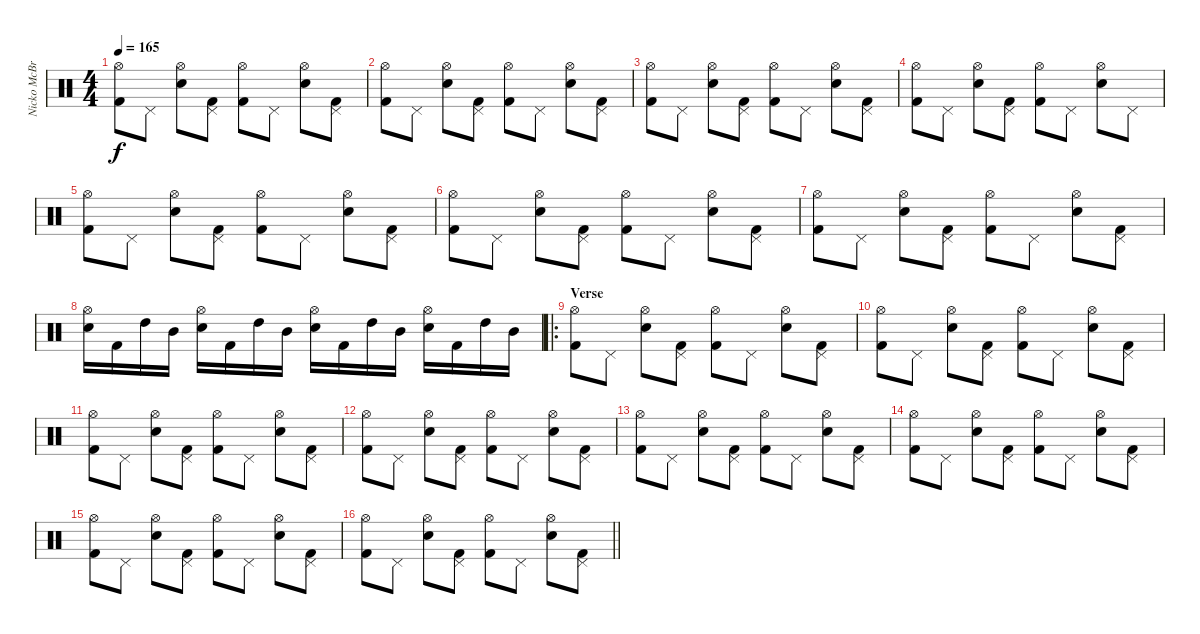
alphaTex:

\track ("Nicko McBrain" "Nicko McBr") {instrument percussion}
\staff {score}
\articulation defaults
\ts (4 4)
\tempo 165
\clef neutral
\ks c
("Kick (hit) 2" "Hi-Hat (open)").8{dy f} "Pedal Hi-Hat (hit)".8 ("Snare (hit) 2" "Hi-Hat (open)").8 ("Kick (hit) 2" "Pedal Hi-Hat (hit)").8 ("Kick (hit) 2" "Hi-Hat (open)").8 "Pedal Hi-Hat (hit)".8 ("Snare (hit) 2" "Hi-Hat (open)").8 ("Kick (hit) 2" "Pedal Hi-Hat (hit)").8 |
("Kick (hit) 2" "Hi-Hat (open)").8 "Pedal Hi-Hat (hit)".8 ("Snare (hit) 2" "Hi-Hat (open)").8 ("Kick (hit) 2" "Pedal Hi-Hat (hit)").8 ("Kick (hit) 2" "Hi-Hat (open)").8 "Pedal Hi-Hat (hit)".8 ("Snare (hit) 2" "Hi-Hat (open)").8 ("Kick (hit) 2" "Pedal Hi-Hat (hit)").8 |
("Kick (hit) 2" "Hi-Hat (open)").8 "Pedal Hi-Hat (hit)".8 ("Snare (hit) 2" "Hi-Hat (open)").8 ("Kick (hit) 2" "Pedal Hi-Hat (hit)").8 ("Kick (hit) 2" "Hi-Hat (open)").8 "Pedal Hi-Hat (hit)".8 ("Snare (hit) 2" "Hi-Hat (open)").8 ("Kick (hit) 2" "Pedal Hi-Hat (hit)").8 |
("Kick (hit) 2" "Hi-Hat (open)").8 "Pedal Hi-Hat (hit)".8 ("Snare (hit) 2" "Hi-Hat (open)").8 ("Kick (hit) 2" "Pedal Hi-Hat (hit)").8 ("Kick (hit) 2" "Hi-Hat (open)").8 "Pedal Hi-Hat (hit)".8 ("Snare (hit) 2" "Hi-Hat (open)").8 "Pedal Hi-Hat (hit)".8 |
("Kick (hit) 2" "Hi-Hat (open)").8 "Pedal Hi-Hat (hit)".8 ("Snare (hit) 2" "Hi-Hat (open)").8 ("Kick (hit) 2" "Pedal Hi-Hat (hit)").8 ("Kick (hit) 2" "Hi-Hat (open)").8 "Pedal Hi-Hat (hit)".8 ("Snare (hit) 2" "Hi-Hat (open)").8 ("Kick (hit) 2" "Pedal Hi-Hat (hit)").8 |
("Kick (hit) 2" "Hi-Hat (open)").8 "Pedal Hi-Hat (hit)".8 ("Snare (hit) 2" "Hi-Hat (open)").8 ("Kick (hit) 2" "Pedal Hi-Hat (hit)").8 ("Kick (hit) 2" "Hi-Hat (open)").8 "Pedal Hi-Hat (hit)".8 ("Snare (hit) 2" "Hi-Hat (open)").8 ("Kick (hit) 2" "Pedal Hi-Hat (hit)").8 |
("Kick (hit) 2" "Hi-Hat (open)").8 "Pedal Hi-Hat (hit)".8 ("Snare (hit) 2" "Hi-Hat (open)").8 ("Kick (hit) 2" "Pedal Hi-Hat (hit)").8 ("Kick (hit) 2" "Hi-Hat (open)").8 "Pedal Hi-Hat (hit)".8 ("Snare (hit) 2" "Hi-Hat (open)").8 ("Kick (hit) 2" "Pedal Hi-Hat (hit)").8 |
("Snare (hit) 2" "Hi-Hat (open)").16 "Kick (hit) 2".16 "High Tom (hit)".16 "Mid Tom (hit)".16 ("Snare (hit) 2" "Hi-Hat (open)").16 "Kick (hit) 2".16 "High Tom (hit)".16 "Mid Tom (hit)".16 ("Snare (hit) 2" "Hi-Hat (open)").16 "Kick (hit) 2".16 "High Tom (hit)".16 "Mid Tom (hit)".16 ("Snare (hit) 2" "Hi-Hat (open)").16 "Kick (hit) 2".16 "High Tom (hit)".16 "Mid Tom (hit)".16 |
\ro
\section ("" "Verse")
("Kick (hit) 2" "Hi-Hat (open)").8 "Pedal Hi-Hat (hit)".8 ("Snare (hit) 2" "Hi-Hat (open)").8 ("Kick (hit) 2" "Pedal Hi-Hat (hit)").8 ("Kick (hit) 2" "Hi-Hat (open)").8 "Pedal Hi-Hat (hit)".8 ("Snare (hit) 2" "Hi-Hat (open)").8 ("Kick (hit) 2" "Pedal Hi-Hat (hit)").8 |
("Kick (hit) 2" "Hi-Hat (open)").8 "Pedal Hi-Hat (hit)".8 ("Snare (hit) 2" "Hi-Hat (open)").8 ("Kick (hit) 2" "Pedal Hi-Hat (hit)").8 ("Kick (hit) 2" "Hi-Hat (open)").8 "Pedal Hi-Hat (hit)".8 ("Snare (hit) 2" "Hi-Hat (open)").8 ("Kick (hit) 2" "Pedal Hi-Hat (hit)").8 |
("Kick (hit) 2" "Hi-Hat (open)").8 "Pedal Hi-Hat (hit)".8 ("Snare (hit) 2" "Hi-Hat (open)").8 ("Kick (hit) 2" "Pedal Hi-Hat (hit)").8 ("Kick (hit) 2" "Hi-Hat (open)").8 "Pedal Hi-Hat (hit)".8 ("Snare (hit) 2" "Hi-Hat (open)").8 ("Kick (hit) 2" "Pedal Hi-Hat (hit)").8 |
("Kick (hit) 2" "Hi-Hat (open)").8 "Pedal Hi-Hat (hit)".8 ("Snare (hit) 2" "Hi-Hat (open)").8 ("Kick (hit) 2" "Pedal Hi-Hat (hit)").8 ("Kick (hit) 2" "Hi-Hat (open)").8 "Pedal Hi-Hat (hit)".8 ("Snare (hit) 2" "Hi-Hat (open)").8 ("Kick (hit) 2" "Pedal Hi-Hat (hit)").8 |
("Kick (hit) 2" "Hi-Hat (open)").8 "Pedal Hi-Hat (hit)".8 ("Snare (hit) 2" "Hi-Hat (open)").8 ("Kick (hit) 2" "Pedal Hi-Hat (hit)").8 ("Kick (hit) 2" "Hi-Hat (open)").8 "Pedal Hi-Hat (hit)".8 ("Snare (hit) 2" "Hi-Hat (open)").8 ("Kick (hit) 2" "Pedal Hi-Hat (hit)").8 |
("Kick (hit) 2" "Hi-Hat (open)").8 "Pedal Hi-Hat (hit)".8 ("Snare (hit) 2" "Hi-Hat (open)").8 ("Kick (hit) 2" "Pedal Hi-Hat (hit)").8 ("Kick (hit) 2" "Hi-Hat (open)").8 "Pedal Hi-Hat (hit)".8 ("Snare (hit) 2" "Hi-Hat (open)").8 ("Kick (hit) 2" "Pedal Hi-Hat (hit)").8 |
("Kick (hit) 2" "Hi-Hat (open)").8 "Pedal Hi-Hat (hit)".8 ("Snare (hit) 2" "Hi-Hat (open)").8 ("Kick (hit) 2" "Pedal Hi-Hat (hit)").8 ("Kick (hit) 2" "Hi-Hat (open)").8 "Pedal Hi-Hat (hit)".8 ("Snare (hit) 2" "Hi-Hat (open)").8 ("Kick (hit) 2" "Pedal Hi-Hat (hit)").8 |
\barLineRight lightlight
("Kick (hit) 2" "Hi-Hat (open)").8 "Pedal Hi-Hat (hit)".8 ("Snare (hit) 2" "Hi-Hat (open)").8 ("Kick (hit) 2" "Pedal Hi-Hat (hit)").8 ("Kick (hit) 2" "Hi-Hat (open)").8 "Pedal Hi-Hat (hit)".8 ("Snare (hit) 2" "Hi-Hat (open)").8 ("Kick (hit) 2" "Pedal Hi-Hat (hit)").8
